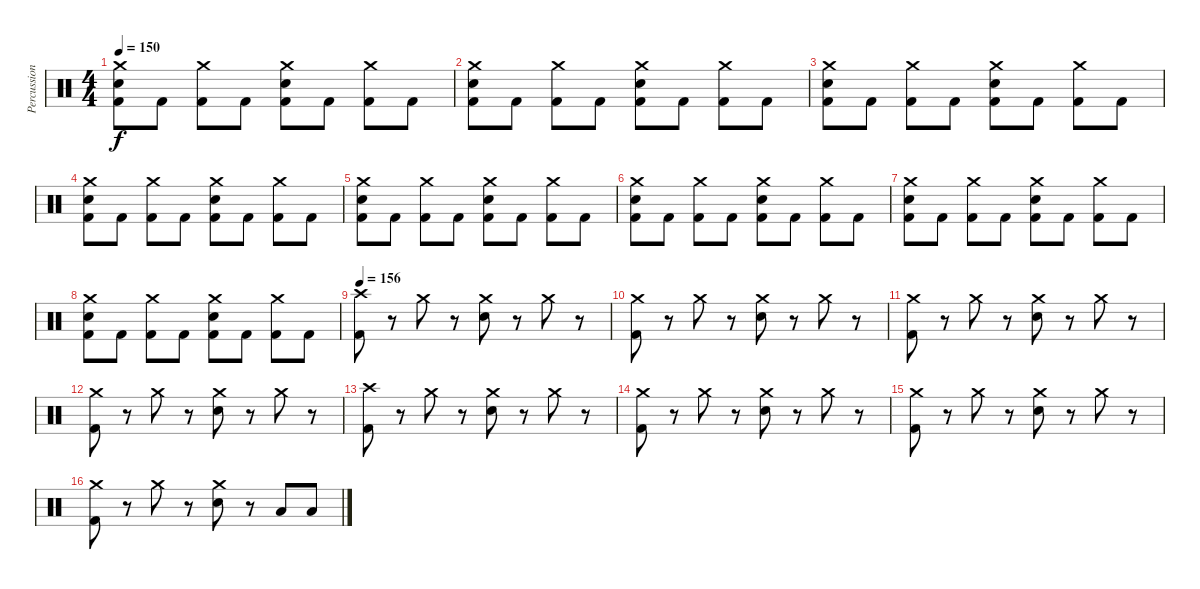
\track ("Percussions" "Percussion") {instrument percussion}
\staff {score}
\articulation defaults
\ts (4 4)
\tempo 150
\clef neutral
\ks c
("Crash medium (hit)" "Electric Snare (hit)" "Kick (hit) 2").8{dy f} "Kick (hit) 2".8 ("Crash medium (hit)" "Kick (hit) 2").8 "Kick (hit) 2".8 ("Crash medium (hit)" "Electric Snare (hit)" "Kick (hit) 2").8 "Kick (hit) 2".8 ("Crash medium (hit)" "Kick (hit) 2").8 "Kick (hit) 2".8 |
("Crash medium (hit)" "Electric Snare (hit)" "Kick (hit) 2").8 "Kick (hit) 2".8 ("Crash medium (hit)" "Kick (hit) 2").8 "Kick (hit) 2".8 ("Crash medium (hit)" "Electric Snare (hit)" "Kick (hit) 2").8 "Kick (hit) 2".8 ("Crash medium (hit)" "Kick (hit) 2").8 "Kick (hit) 2".8 |
("Crash medium (hit)" "Electric Snare (hit)" "Kick (hit) 2").8 "Kick (hit) 2".8 ("Crash medium (hit)" "Kick (hit) 2").8 "Kick (hit) 2".8 ("Crash medium (hit)" "Electric Snare (hit)" "Kick (hit) 2").8 "Kick (hit) 2".8 ("Crash medium (hit)" "Kick (hit) 2").8 "Kick (hit) 2".8 |
("Crash medium (hit)" "Electric Snare (hit)" "Kick (hit) 2").8 "Kick (hit) 2".8 ("Crash medium (hit)" "Kick (hit) 2").8 "Kick (hit) 2".8 ("Crash medium (hit)" "Electric Snare (hit)" "Kick (hit) 2").8 "Kick (hit) 2".8 ("Crash medium (hit)" "Kick (hit) 2").8 "Kick (hit) 2".8 |
("Crash medium (hit)" "Electric Snare (hit)" "Kick (hit) 2").8 "Kick (hit) 2".8 ("Crash medium (hit)" "Kick (hit) 2").8 "Kick (hit) 2".8 ("Crash medium (hit)" "Electric Snare (hit)" "Kick (hit) 2").8 "Kick (hit) 2".8 ("Crash medium (hit)" "Kick (hit) 2").8 "Kick (hit) 2".8 |
("Crash medium (hit)" "Electric Snare (hit)" "Kick (hit) 2").8 "Kick (hit) 2".8 ("Crash medium (hit)" "Kick (hit) 2").8 "Kick (hit) 2".8 ("Crash medium (hit)" "Electric Snare (hit)" "Kick (hit) 2").8 "Kick (hit) 2".8 ("Crash medium (hit)" "Kick (hit) 2").8 "Kick (hit) 2".8 |
("Crash medium (hit)" "Electric Snare (hit)" "Kick (hit) 2").8 "Kick (hit) 2".8 ("Crash medium (hit)" "Kick (hit) 2").8 "Kick (hit) 2".8 ("Crash medium (hit)" "Electric Snare (hit)" "Kick (hit) 2").8 "Kick (hit) 2".8 ("Crash medium (hit)" "Kick (hit) 2").8 "Kick (hit) 2".8 |
("Crash medium (hit)" "Electric Snare (hit)" "Kick (hit) 2").8 "Kick (hit) 2".8 ("Crash medium (hit)" "Kick (hit) 2").8 "Kick (hit) 2".8 ("Crash medium (hit)" "Electric Snare (hit)" "Kick (hit) 2").8 "Kick (hit) 2".8 ("Crash medium (hit)" "Kick (hit) 2").8 "Kick (hit) 2".8 |
\tempo 156
("Crash high (hit)" "Kick (hit) 2").8 r.8 "Crash medium (hit)".8 r.8 ("Crash medium (hit)" "Electric Snare (hit)").8 r.8 "Crash medium (hit)".8 r.8 |
("Crash medium (hit)" "Kick (hit) 2").8 r.8 "Crash medium (hit)".8 r.8 ("Crash medium (hit)" "Electric Snare (hit)").8 r.8 "Crash medium (hit)".8 r.8 |
("Crash medium (hit)" "Kick (hit) 2").8 r.8 "Crash medium (hit)".8 r.8 ("Crash medium (hit)" "Electric Snare (hit)").8 r.8 "Crash medium (hit)".8 r.8 |
("Crash medium (hit)" "Kick (hit) 2").8 r.8 "Crash medium (hit)".8 r.8 ("Crash medium (hit)" "Electric Snare (hit)").8 r.8 "Crash medium (hit)".8 r.8 |
("Crash high (hit)" "Kick (hit) 2").8 r.8 "Crash medium (hit)".8 r.8 ("Crash medium (hit)" "Electric Snare (hit)").8 r.8 "Crash medium (hit)".8 r.8 |
("Crash medium (hit)" "Kick (hit) 2").8 r.8 "Crash medium (hit)".8 r.8 ("Crash medium (hit)" "Electric Snare (hit)").8 r.8 "Crash medium (hit)".8 r.8 |
("Crash medium (hit)" "Kick (hit) 2").8 r.8 "Crash medium (hit)".8 r.8 ("Crash medium (hit)" "Electric Snare (hit)").8 r.8 "Crash medium (hit)".8 r.8 |
("Crash medium (hit)" "Kick (hit) 2").8 r.8 "Crash medium (hit)".8 r.8 ("Crash medium (hit)" "Electric Snare (hit)").8 r.8 "Low Tom (hit)".8 "Low Tom (hit)".8
